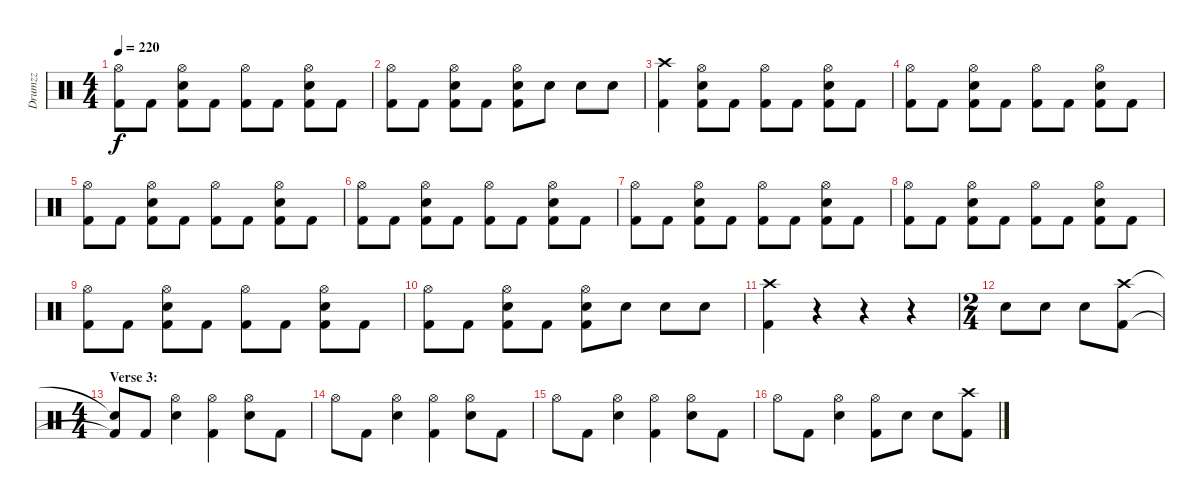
\track ("Drumzz" "Drumzz") {instrument percussion}
\staff {score}
\articulation defaults
\ts (4 4)
\tempo 220
\clef neutral
\ks c
("Hi-Hat (open)" "Kick (hit) 2").8{dy f} "Kick (hit) 2".8 ("Hi-Hat (open)" "Electric Snare (hit)" "Kick (hit) 2").8 "Kick (hit) 2".8 ("Hi-Hat (open)" "Kick (hit) 2").8 "Kick (hit) 2".8 ("Hi-Hat (open)" "Electric Snare (hit)" "Kick (hit) 2").8 "Kick (hit) 2".8 |
("Hi-Hat (open)" "Kick (hit) 2").8 "Kick (hit) 2".8 ("Hi-Hat (open)" "Electric Snare (hit)" "Kick (hit) 2").8 "Kick (hit) 2".8 ("Hi-Hat (open)" "Electric Snare (hit)" "Kick (hit) 2").8 "Electric Snare (hit)".8 "Electric Snare (hit)".8 "Electric Snare (hit)".8 |
("Crash high (hit)" "Kick (hit) 2").4 ("Hi-Hat (open)" "Electric Snare (hit)" "Kick (hit) 2").8 "Kick (hit) 2".8 ("Hi-Hat (open)" "Kick (hit) 2").8 "Kick (hit) 2".8 ("Hi-Hat (open)" "Electric Snare (hit)" "Kick (hit) 2").8 "Kick (hit) 2".8 |
("Hi-Hat (open)" "Kick (hit) 2").8 "Kick (hit) 2".8 ("Hi-Hat (open)" "Electric Snare (hit)" "Kick (hit) 2").8 "Kick (hit) 2".8 ("Hi-Hat (open)" "Kick (hit) 2").8 "Kick (hit) 2".8 ("Hi-Hat (open)" "Electric Snare (hit)" "Kick (hit) 2").8 "Kick (hit) 2".8 |
("Hi-Hat (open)" "Kick (hit) 2").8 "Kick (hit) 2".8 ("Hi-Hat (open)" "Electric Snare (hit)" "Kick (hit) 2").8 "Kick (hit) 2".8 ("Hi-Hat (open)" "Kick (hit) 2").8 "Kick (hit) 2".8 ("Hi-Hat (open)" "Electric Snare (hit)" "Kick (hit) 2").8 "Kick (hit) 2".8 |
("Hi-Hat (open)" "Kick (hit) 2").8 "Kick (hit) 2".8 ("Hi-Hat (open)" "Electric Snare (hit)" "Kick (hit) 2").8 "Kick (hit) 2".8 ("Hi-Hat (open)" "Kick (hit) 2").8 "Kick (hit) 2".8 ("Hi-Hat (open)" "Electric Snare (hit)" "Kick (hit) 2").8 "Kick (hit) 2".8 |
("Hi-Hat (open)" "Kick (hit) 2").8 "Kick (hit) 2".8 ("Hi-Hat (open)" "Electric Snare (hit)" "Kick (hit) 2").8 "Kick (hit) 2".8 ("Hi-Hat (open)" "Kick (hit) 2").8 "Kick (hit) 2".8 ("Hi-Hat (open)" "Electric Snare (hit)" "Kick (hit) 2").8 "Kick (hit) 2".8 |
("Hi-Hat (open)" "Kick (hit) 2").8 "Kick (hit) 2".8 ("Hi-Hat (open)" "Electric Snare (hit)" "Kick (hit) 2").8 "Kick (hit) 2".8 ("Hi-Hat (open)" "Kick (hit) 2").8 "Kick (hit) 2".8 ("Hi-Hat (open)" "Electric Snare (hit)" "Kick (hit) 2").8 "Kick (hit) 2".8 |
("Hi-Hat (open)" "Kick (hit) 2").8 "Kick (hit) 2".8 ("Hi-Hat (open)" "Electric Snare (hit)" "Kick (hit) 2").8 "Kick (hit) 2".8 ("Hi-Hat (open)" "Kick (hit) 2").8 "Kick (hit) 2".8 ("Hi-Hat (open)" "Electric Snare (hit)" "Kick (hit) 2").8 "Kick (hit) 2".8 |
("Hi-Hat (open)" "Kick (hit) 2").8 "Kick (hit) 2".8 ("Hi-Hat (open)" "Electric Snare (hit)" "Kick (hit) 2").8 "Kick (hit) 2".8 ("Hi-Hat (open)" "Electric Snare (hit)" "Kick (hit) 2").8 "Electric Snare (hit)".8 "Electric Snare (hit)".8 "Electric Snare (hit)".8 |
("Crash high (hit)" "Kick (hit) 2").4 r.4 r.4 r.4 |
\ts (2 4)
"Electric Snare (hit)".8 "Electric Snare (hit)".8 "Electric Snare (hit)".8 ("Crash high (hit)" "Kick (hit) 2").8 |
\ts (4 4)
\section ("" "Verse 3:")
("Snare (hit)"{t} "Kick (hit) 2"{t}).8 "Kick (hit) 2".8 ("Hi-Hat (open)" "Electric Snare (hit)").4 ("Hi-Hat (open)" "Kick (hit) 2").4 ("Hi-Hat (open)" "Electric Snare (hit)").8 "Kick (hit) 2".8 |
"Hi-Hat (open)".8 "Kick (hit) 2".8 ("Hi-Hat (open)" "Electric Snare (hit)").4 ("Hi-Hat (open)" "Kick (hit) 2").4 ("Hi-Hat (open)" "Electric Snare (hit)").8 "Kick (hit) 2".8 |
"Hi-Hat (open)".8 "Kick (hit) 2".8 ("Hi-Hat (open)" "Electric Snare (hit)").4 ("Hi-Hat (open)" "Kick (hit) 2").4 ("Hi-Hat (open)" "Electric Snare (hit)").8 "Kick (hit) 2".8 |
"Hi-Hat (open)".8 "Kick (hit) 2".8 ("Hi-Hat (open)" "Electric Snare (hit)").4 ("Hi-Hat (open)" "Kick (hit) 2").8 "Electric Snare (hit)".8 "Electric Snare (hit)".8 ("Crash high (hit)" "Kick (hit) 2").8
